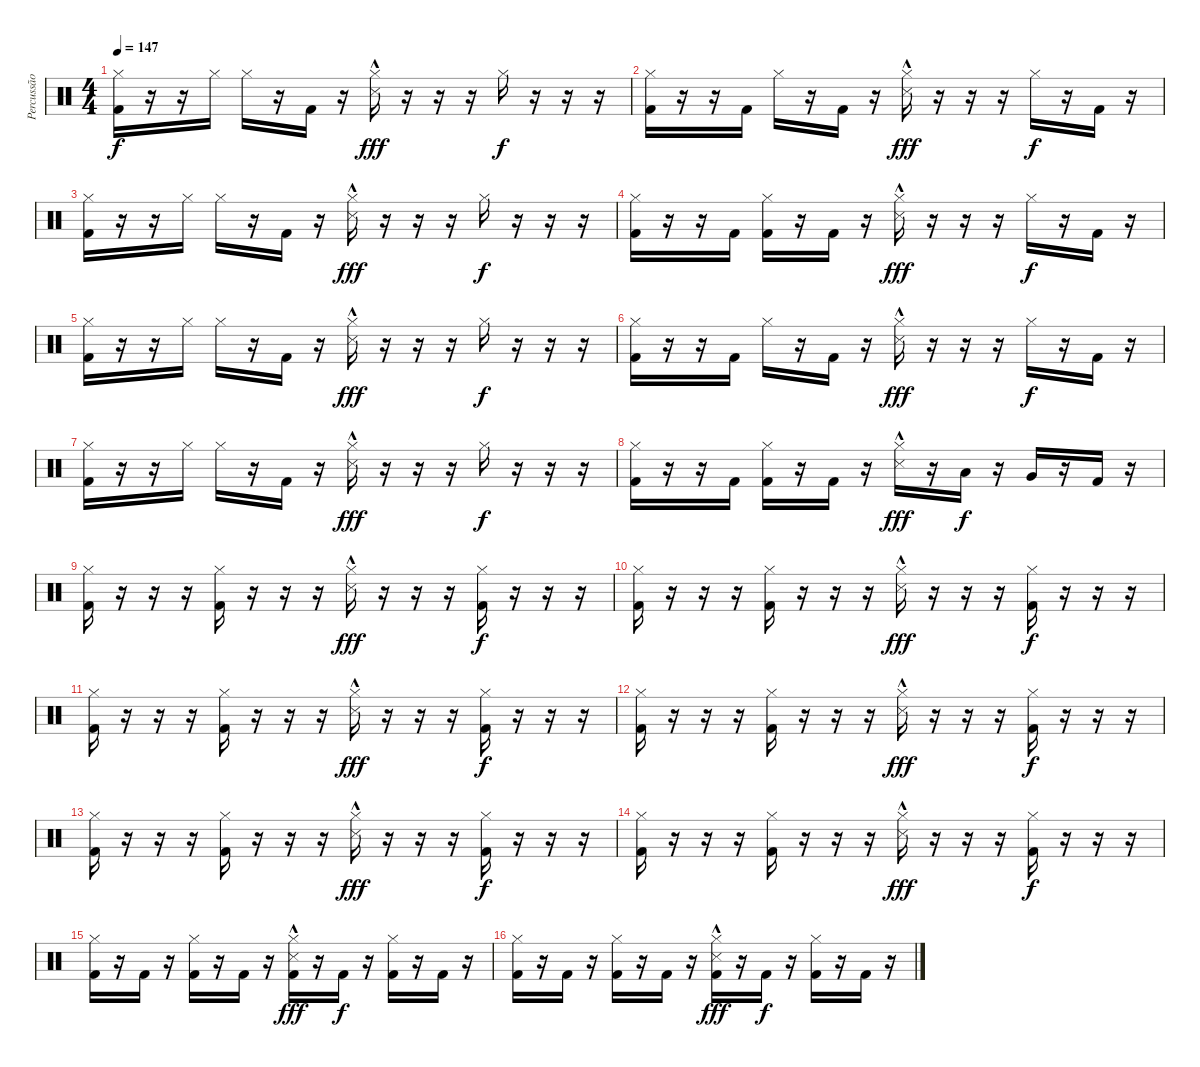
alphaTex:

\track ("Percussão" "Percussão") {instrument percussion}
\staff {score}
\articulation defaults
\ts (4 4)
\tempo 147
\clef neutral
\ks c
("Hi-Hat (closed)" "Kick (hit) 2").16{dy f} r.16 r.16 "Hi-Hat (closed)".16 "Hi-Hat (closed)".16 r.16 "Kick (hit) 2".16 r.16 ("Hi-Hat (closed)" "Snare (side stick) 3"{hac}).16{dy fff} r.16 r.16 r.16 "Hi-Hat (closed)".16{dy f} r.16 r.16 r.16 |
("Hi-Hat (closed)" "Kick (hit) 2").16 r.16 r.16 "Kick (hit) 2".16 "Hi-Hat (closed)".16 r.16 "Kick (hit) 2".16 r.16 ("Hi-Hat (closed)" "Snare (side stick) 3"{hac}).16{dy fff} r.16 r.16 r.16 "Hi-Hat (closed)".16{dy f} r.16 "Kick (hit) 2".16 r.16 |
("Hi-Hat (closed)" "Kick (hit) 2").16 r.16 r.16 "Hi-Hat (closed)".16 "Hi-Hat (closed)".16 r.16 "Kick (hit) 2".16 r.16 ("Hi-Hat (closed)" "Snare (side stick) 3"{hac}).16{dy fff} r.16 r.16 r.16 "Hi-Hat (closed)".16{dy f} r.16 r.16 r.16 |
("Hi-Hat (closed)" "Kick (hit) 2").16 r.16 r.16 "Kick (hit) 2".16 ("Hi-Hat (closed)" "Kick (hit) 2").16 r.16 "Kick (hit) 2".16 r.16 ("Hi-Hat (closed)" "Snare (side stick) 3"{hac}).16{dy fff} r.16 r.16 r.16 "Hi-Hat (closed)".16{dy f} r.16 "Kick (hit) 2".16 r.16 |
("Hi-Hat (closed)" "Kick (hit) 2").16 r.16 r.16 "Hi-Hat (closed)".16 "Hi-Hat (closed)".16 r.16 "Kick (hit) 2".16 r.16 ("Hi-Hat (closed)" "Snare (side stick) 3"{hac}).16{dy fff} r.16 r.16 r.16 "Hi-Hat (closed)".16{dy f} r.16 r.16 r.16 |
("Hi-Hat (closed)" "Kick (hit) 2").16 r.16 r.16 "Kick (hit) 2".16 "Hi-Hat (closed)".16 r.16 "Kick (hit) 2".16 r.16 ("Hi-Hat (closed)" "Snare (side stick) 3"{hac}).16{dy fff} r.16 r.16 r.16 "Hi-Hat (closed)".16{dy f} r.16 "Kick (hit) 2".16 r.16 |
("Hi-Hat (closed)" "Kick (hit) 2").16 r.16 r.16 "Hi-Hat (closed)".16 "Hi-Hat (closed)".16 r.16 "Kick (hit) 2".16 r.16 ("Hi-Hat (closed)" "Snare (side stick) 3"{hac}).16{dy fff} r.16 r.16 r.16 "Hi-Hat (closed)".16{dy f} r.16 r.16 r.16 |
("Hi-Hat (closed)" "Kick (hit) 2").16 r.16 r.16 "Kick (hit) 2".16 ("Hi-Hat (closed)" "Kick (hit) 2").16 r.16 "Kick (hit) 2".16 r.16 ("Hi-Hat (closed)" "Snare (side stick) 3"{hac}).16{dy fff} r.16 "Low Tom (hit)".16{dy f} r.16 "Very Low Tom (hit)".16 r.16 "Kick (hit) 2".16 r.16 |
("Hi-Hat (closed)" "Kick (hit) 2").16 r.16 r.16 r.16 ("Hi-Hat (closed)" "Kick (hit) 2").16 r.16 r.16 r.16 ("Hi-Hat (closed)" "Snare (side stick) 3"{hac}).16{dy fff} r.16 r.16 r.16 ("Hi-Hat (closed)" "Kick (hit) 2").16{dy f} r.16 r.16 r.16 |
("Hi-Hat (closed)" "Kick (hit) 2").16 r.16 r.16 r.16 ("Hi-Hat (closed)" "Kick (hit) 2").16 r.16 r.16 r.16 ("Hi-Hat (closed)" "Snare (side stick) 3"{hac}).16{dy fff} r.16 r.16 r.16 ("Hi-Hat (closed)" "Kick (hit) 2").16{dy f} r.16 r.16 r.16 |
("Hi-Hat (closed)" "Kick (hit) 2").16 r.16 r.16 r.16 ("Hi-Hat (closed)" "Kick (hit) 2").16 r.16 r.16 r.16 ("Hi-Hat (closed)" "Snare (side stick) 3"{hac}).16{dy fff} r.16 r.16 r.16 ("Hi-Hat (closed)" "Kick (hit) 2").16{dy f} r.16 r.16 r.16 |
("Hi-Hat (closed)" "Kick (hit) 2").16 r.16 r.16 r.16 ("Hi-Hat (closed)" "Kick (hit) 2").16 r.16 r.16 r.16 ("Hi-Hat (closed)" "Snare (side stick) 3"{hac}).16{dy fff} r.16 r.16 r.16 ("Hi-Hat (closed)" "Kick (hit) 2").16{dy f} r.16 r.16 r.16 |
("Hi-Hat (closed)" "Kick (hit) 2").16 r.16 r.16 r.16 ("Hi-Hat (closed)" "Kick (hit) 2").16 r.16 r.16 r.16 ("Hi-Hat (closed)" "Snare (side stick) 3"{hac}).16{dy fff} r.16 r.16 r.16 ("Hi-Hat (closed)" "Kick (hit) 2").16{dy f} r.16 r.16 r.16 |
("Hi-Hat (closed)" "Kick (hit) 2").16 r.16 r.16 r.16 ("Hi-Hat (closed)" "Kick (hit) 2").16 r.16 r.16 r.16 ("Hi-Hat (closed)" "Snare (side stick) 3"{hac}).16{dy fff} r.16 r.16 r.16 ("Hi-Hat (closed)" "Kick (hit) 2").16{dy f} r.16 r.16 r.16 |
("Hi-Hat (closed)" "Kick (hit) 2").16 r.16 "Kick (hit) 2".16 r.16 ("Hi-Hat (closed)" "Kick (hit) 2").16 r.16 "Kick (hit) 2".16 r.16 ("Hi-Hat (closed)" "Snare (side stick) 3"{hac} "Kick (hit) 2").16{dy fff} r.16 "Kick (hit) 2".16{dy f} r.16 ("Hi-Hat (closed)" "Kick (hit) 2").16 r.16 "Kick (hit) 2".16 r.16 |
("Hi-Hat (closed)" "Kick (hit) 2").16 r.16 "Kick (hit) 2".16 r.16 ("Hi-Hat (closed)" "Kick (hit) 2").16 r.16 "Kick (hit) 2".16 r.16 ("Hi-Hat (closed)" "Snare (side stick) 3"{hac} "Kick (hit) 2").16{dy fff} r.16 "Kick (hit) 2".16{dy f} r.16 ("Hi-Hat (closed)" "Kick (hit) 2").16 r.16 "Kick (hit) 2".16 r.16
